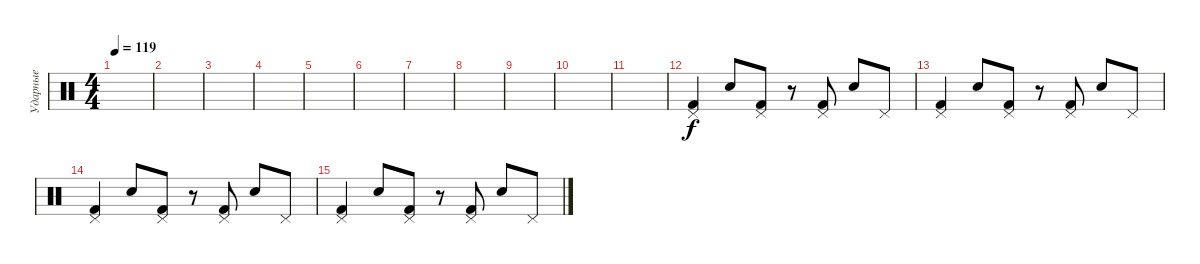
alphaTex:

\track ("Ударные" "Ударные") {instrument percussion}
\staff {score}
\articulation defaults
\ts (4 4)
\tempo 119
\clef neutral
\ks c
|
|
|
|
|
|
|
|
|
|
|
("Pedal Hi-Hat (hit)" "Kick (hit) 2").4 "Electric Snare (hit)".8 ("Pedal Hi-Hat (hit)" "Kick (hit) 2").8 r.8 ("Pedal Hi-Hat (hit)" "Kick (hit) 2").8 "Electric Snare (hit)".8 "Pedal Hi-Hat (hit)".8 |
("Pedal Hi-Hat (hit)" "Kick (hit) 2").4 "Electric Snare (hit)".8 ("Pedal Hi-Hat (hit)" "Kick (hit) 2").8 r.8 ("Pedal Hi-Hat (hit)" "Kick (hit) 2").8 "Electric Snare (hit)".8 "Pedal Hi-Hat (hit)".8 |
("Pedal Hi-Hat (hit)" "Kick (hit) 2").4 "Electric Snare (hit)".8 ("Pedal Hi-Hat (hit)" "Kick (hit) 2").8 r.8 ("Pedal Hi-Hat (hit)" "Kick (hit) 2").8 "Electric Snare (hit)".8 "Pedal Hi-Hat (hit)".8 |
("Pedal Hi-Hat (hit)" "Kick (hit) 2").4 "Electric Snare (hit)".8 ("Pedal Hi-Hat (hit)" "Kick (hit) 2").8 r.8 ("Pedal Hi-Hat (hit)" "Kick (hit) 2").8 "Electric Snare (hit)".8 "Pedal Hi-Hat (hit)".8
